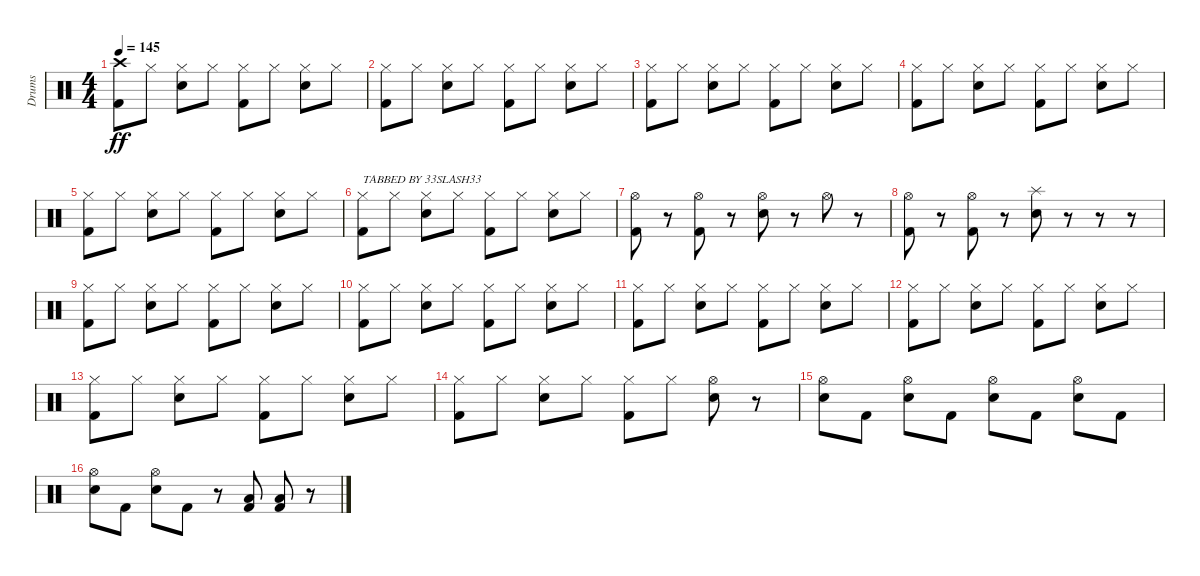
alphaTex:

\track ("Drums" "Drums") {instrument percussion}
\staff {score}
\articulation defaults
\ts (4 4)
\tempo 145
\clef neutral
\ks c
("Crash high (hit)" "Kick (hit) 2").8{dy ff} "Hi-Hat (closed)".8 ("Hi-Hat (closed)" "Snare (hit) 2").8 "Hi-Hat (closed)".8 ("Hi-Hat (closed)" "Kick (hit) 2").8 "Hi-Hat (closed)".8 ("Hi-Hat (closed)" "Snare (hit) 2").8 "Hi-Hat (closed)".8 |
("Hi-Hat (closed)" "Kick (hit) 2").8 "Hi-Hat (closed)".8 ("Hi-Hat (closed)" "Snare (hit) 2").8 "Hi-Hat (closed)".8 ("Hi-Hat (closed)" "Kick (hit) 2").8 "Hi-Hat (closed)".8 ("Hi-Hat (closed)" "Snare (hit) 2").8 "Hi-Hat (closed)".8 |
("Hi-Hat (closed)" "Kick (hit) 2").8 "Hi-Hat (closed)".8 ("Hi-Hat (closed)" "Snare (hit) 2").8 "Hi-Hat (closed)".8 ("Hi-Hat (closed)" "Kick (hit) 2").8 "Hi-Hat (closed)".8 ("Hi-Hat (closed)" "Snare (hit) 2").8 "Hi-Hat (closed)".8 |
("Hi-Hat (closed)" "Kick (hit) 2").8 "Hi-Hat (closed)".8 ("Hi-Hat (closed)" "Snare (hit) 2").8 "Hi-Hat (closed)".8 ("Hi-Hat (closed)" "Kick (hit) 2").8 "Hi-Hat (closed)".8 ("Hi-Hat (closed)" "Snare (hit) 2").8 "Hi-Hat (closed)".8 |
("Hi-Hat (closed)" "Kick (hit) 2").8 "Hi-Hat (closed)".8 ("Hi-Hat (closed)" "Snare (hit) 2").8 "Hi-Hat (closed)".8 ("Hi-Hat (closed)" "Kick (hit) 2").8 "Hi-Hat (closed)".8 ("Hi-Hat (closed)" "Snare (hit) 2").8 "Hi-Hat (closed)".8 |
("Hi-Hat (closed)" "Kick (hit) 2").8{txt "TABBED BY 33SLASH33"} "Hi-Hat (closed)".8 ("Hi-Hat (closed)" "Snare (hit) 2").8 "Hi-Hat (closed)".8 ("Hi-Hat (closed)" "Kick (hit) 2").8 "Hi-Hat (closed)".8 ("Hi-Hat (closed)" "Snare (hit) 2").8 "Hi-Hat (closed)".8 |
("Hi-Hat (open)" "Kick (hit) 2").8 r.8 ("Hi-Hat (open)" "Kick (hit) 2").8 r.8 ("Hi-Hat (open)" "Snare (hit) 2").8 r.8 "Hi-Hat (open)".8 r.8 |
("Hi-Hat (open)" "Kick (hit) 2").8 r.8 ("Hi-Hat (open)" "Kick (hit) 2").8 r.8 ("Splash (hit)" "Snare (hit) 2").8 r.8 r.8 r.8 |
("Hi-Hat (closed)" "Kick (hit) 2").8 "Hi-Hat (closed)".8 ("Hi-Hat (closed)" "Snare (hit) 2").8 "Hi-Hat (closed)".8 ("Hi-Hat (closed)" "Kick (hit) 2").8 "Hi-Hat (closed)".8 ("Hi-Hat (closed)" "Snare (hit) 2").8 "Hi-Hat (closed)".8 |
("Hi-Hat (closed)" "Kick (hit) 2").8 "Hi-Hat (closed)".8 ("Hi-Hat (closed)" "Snare (hit) 2").8 "Hi-Hat (closed)".8 ("Hi-Hat (closed)" "Kick (hit) 2").8 "Hi-Hat (closed)".8 ("Hi-Hat (closed)" "Snare (hit) 2").8 "Hi-Hat (closed)".8 |
("Hi-Hat (closed)" "Kick (hit) 2").8 "Hi-Hat (closed)".8 ("Hi-Hat (closed)" "Snare (hit) 2").8 "Hi-Hat (closed)".8 ("Hi-Hat (closed)" "Kick (hit) 2").8 "Hi-Hat (closed)".8 ("Hi-Hat (closed)" "Snare (hit) 2").8 "Hi-Hat (closed)".8 |
("Hi-Hat (closed)" "Kick (hit) 2").8 "Hi-Hat (closed)".8 ("Hi-Hat (closed)" "Snare (hit) 2").8 "Hi-Hat (closed)".8 ("Hi-Hat (closed)" "Kick (hit) 2").8 "Hi-Hat (closed)".8 ("Hi-Hat (closed)" "Snare (hit) 2").8 "Hi-Hat (closed)".8 |
("Hi-Hat (closed)" "Kick (hit) 2").8 "Hi-Hat (closed)".8 ("Hi-Hat (closed)" "Snare (hit) 2").8 "Hi-Hat (closed)".8 ("Hi-Hat (closed)" "Kick (hit) 2").8 "Hi-Hat (closed)".8 ("Hi-Hat (closed)" "Snare (hit) 2").8 "Hi-Hat (closed)".8 |
("Hi-Hat (closed)" "Kick (hit) 2").8 "Hi-Hat (closed)".8 ("Hi-Hat (closed)" "Snare (hit) 2").8 "Hi-Hat (closed)".8 ("Hi-Hat (closed)" "Kick (hit) 2").8 "Hi-Hat (closed)".8 ("Hi-Hat (open)" "Snare (hit) 2").8 r.8 |
("Hi-Hat (open)" "Snare (hit) 2").8 "Kick (hit) 2".8 ("Hi-Hat (open)" "Snare (hit) 2").8 "Kick (hit) 2".8 ("Hi-Hat (open)" "Snare (hit) 2").8 "Kick (hit) 2".8 ("Hi-Hat (open)" "Snare (hit) 2").8 "Kick (hit) 2".8 |
("Hi-Hat (open)" "Snare (hit) 2").8 "Kick (hit) 2".8 ("Hi-Hat (open)" "Snare (hit) 2").8 "Kick (hit) 2".8 r.8 ("Low Tom (hit)" "Kick (hit) 2").8 ("Low Floor Tom (hit)" "Kick (hit) 2").8 r.8
